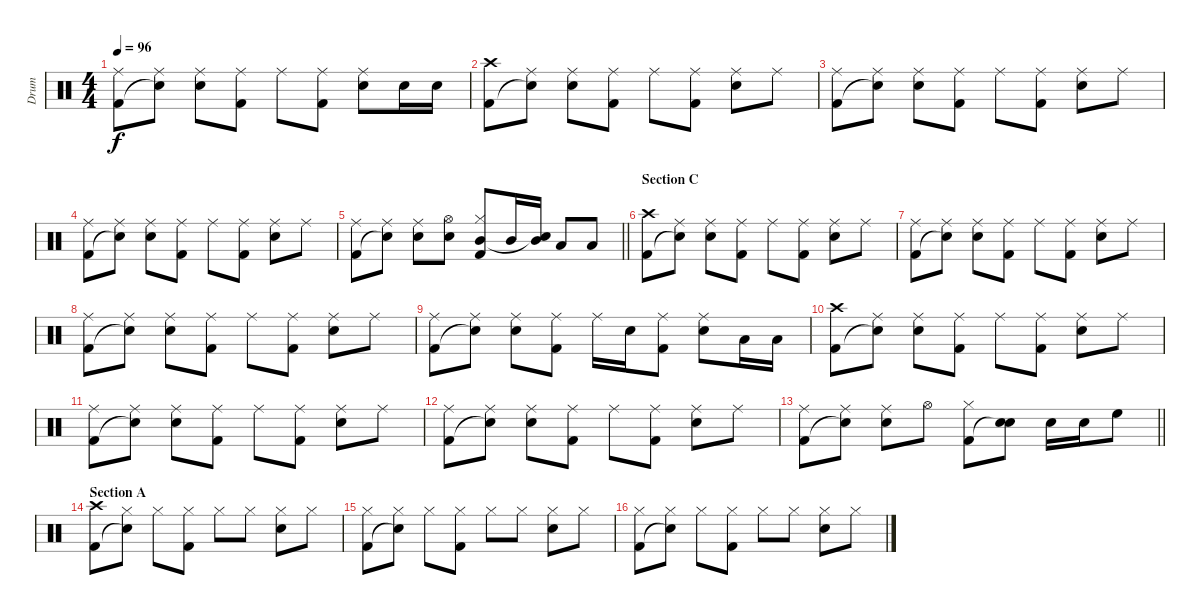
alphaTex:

\track ("Drum" "Drum") {instrument percussion}
\staff {score}
\articulation defaults
\ts (4 4)
\tempo 96
\clef neutral
\ks c
("Ride (middle)" "Kick (hit) 2").8{dy f} ("Ride (middle)" "Snare (hit)"{t}).8 ("Ride (middle)" "Snare (hit) 2").8 ("Ride (middle)" "Kick (hit) 2").8 "Ride (middle)".8 ("Ride (middle)" "Kick (hit) 2").8 ("Ride (middle)" "Snare (hit) 2").8 "Snare (hit) 2".16 "Snare (hit) 2".16 |
("Crash high (hit)" "Kick (hit) 2").8 ("Ride (middle)" "Snare (hit)"{t}).8 ("Ride (middle)" "Snare (hit) 2").8 ("Ride (middle)" "Kick (hit) 2").8 "Ride (middle)".8 ("Ride (middle)" "Kick (hit) 2").8 ("Ride (middle)" "Snare (hit) 2").8 "Ride (middle)".8 |
("Ride (middle)" "Kick (hit) 2").8 ("Ride (middle)" "Snare (hit)"{t}).8 ("Ride (middle)" "Snare (hit) 2").8 ("Ride (middle)" "Kick (hit) 2").8 "Ride (middle)".8 ("Ride (middle)" "Kick (hit) 2").8 ("Ride (middle)" "Snare (hit) 2").8 "Ride (middle)".8 |
("Ride (middle)" "Kick (hit) 2").8 ("Ride (middle)" "Snare (hit)"{t}).8 ("Ride (middle)" "Snare (hit) 2").8 ("Ride (middle)" "Kick (hit) 2").8 "Ride (middle)".8 ("Ride (middle)" "Kick (hit) 2").8 ("Ride (middle)" "Snare (hit) 2").8 "Ride (middle)".8 |
\barLineRight lightlight
("Ride (middle)" "Kick (hit) 2").8 ("Ride (middle)" "Snare (hit)"{t}).8 ("Ride (middle)" "Snare (hit) 2").8 ("Hi-Hat (open)" "Snare (hit) 2").8 ("Hi-Hat (closed)" "Mid Tom (hit)" "Kick (hit) 2").8 "Mid Tom (hit)".16 ("Mid Tom (hit)" "Snare (hit)"{t}).16 "Low Tom (hit)".8 "Low Tom (hit)".8 |
\section ("" "Section C")
("Crash high (hit)" "Kick (hit) 2").8 ("Ride (middle)" "Snare (hit)"{t}).8 ("Ride (middle)" "Snare (hit) 2").8 ("Ride (middle)" "Kick (hit) 2").8 "Ride (middle)".8 ("Ride (middle)" "Kick (hit) 2").8 ("Ride (middle)" "Snare (hit) 2").8 "Ride (middle)".8 |
("Ride (middle)" "Kick (hit) 2").8 ("Ride (middle)" "Snare (hit)"{t}).8 ("Ride (middle)" "Snare (hit) 2").8 ("Ride (middle)" "Kick (hit) 2").8 "Ride (middle)".8 ("Ride (middle)" "Kick (hit) 2").8 ("Ride (middle)" "Snare (hit) 2").8 "Ride (middle)".8 |
("Ride (middle)" "Kick (hit) 2").8 ("Ride (middle)" "Snare (hit)"{t}).8 ("Ride (middle)" "Snare (hit) 2").8 ("Ride (middle)" "Kick (hit) 2").8 "Ride (middle)".8 ("Ride (middle)" "Kick (hit) 2").8 ("Ride (middle)" "Snare (hit) 2").8 "Ride (middle)".8 |
("Ride (middle)" "Kick (hit) 2").8 ("Ride (middle)" "Snare (hit)"{t}).8 ("Ride (middle)" "Snare (hit) 2").8 ("Ride (middle)" "Kick (hit) 2").8 "Ride (middle)".16 "Snare (hit) 2".16 ("Ride (middle)" "Kick (hit) 2").8 ("Ride (middle)" "Snare (hit) 2").8 "Low Tom (hit)".16 "Low Tom (hit)".16 |
("Crash high (hit)" "Kick (hit) 2").8 ("Ride (middle)" "Snare (hit)"{t}).8 ("Ride (middle)" "Snare (hit) 2").8 ("Ride (middle)" "Kick (hit) 2").8 "Ride (middle)".8 ("Ride (middle)" "Kick (hit) 2").8 ("Ride (middle)" "Snare (hit) 2").8 "Ride (middle)".8 |
("Ride (middle)" "Kick (hit) 2").8 ("Ride (middle)" "Snare (hit)"{t}).8 ("Ride (middle)" "Snare (hit) 2").8 ("Ride (middle)" "Kick (hit) 2").8 "Ride (middle)".8 ("Ride (middle)" "Kick (hit) 2").8 ("Ride (middle)" "Snare (hit) 2").8 "Ride (middle)".8 |
("Ride (middle)" "Kick (hit) 2").8 ("Ride (middle)" "Snare (hit)"{t}).8 ("Ride (middle)" "Snare (hit) 2").8 ("Ride (middle)" "Kick (hit) 2").8 "Ride (middle)".8 ("Ride (middle)" "Kick (hit) 2").8 ("Ride (middle)" "Snare (hit) 2").8 "Ride (middle)".8 |
\barLineRight lightlight
("Ride (middle)" "Kick (hit) 2").8 ("Ride (middle)" "Snare (hit)"{t}).8 ("Ride (middle)" "Snare (hit) 2").8 "Hi-Hat (open)".8 ("Hi-Hat (closed)" "Kick (hit) 2").8 ("Snare (hit) 2" "Snare (hit)"{t}).8 "Snare (hit) 2".16 "Snare (hit) 2".16 "High Floor Tom (hit)".8 |
\section ("" "Section A")
("Crash high (hit)" "Kick (hit) 2").8 ("Hi-Hat (closed)" "Snare (hit)"{t}).8 "Hi-Hat (closed)".8 ("Hi-Hat (closed)" "Kick (hit) 2").8 "Hi-Hat (closed)".8 "Hi-Hat (closed)".8 ("Hi-Hat (closed)" "Snare (hit) 2").8 "Hi-Hat (closed)".8 |
("Hi-Hat (closed)" "Kick (hit) 2").8 ("Hi-Hat (closed)" "Snare (hit)"{t}).8 "Hi-Hat (closed)".8 ("Hi-Hat (closed)" "Kick (hit) 2").8 "Hi-Hat (closed)".8 "Hi-Hat (closed)".8 ("Hi-Hat (closed)" "Snare (hit) 2").8 "Hi-Hat (closed)".8 |
("Hi-Hat (closed)" "Kick (hit) 2").8 ("Hi-Hat (closed)" "Snare (hit)"{t}).8 "Hi-Hat (closed)".8 ("Hi-Hat (closed)" "Kick (hit) 2").8 "Hi-Hat (closed)".8 "Hi-Hat (closed)".8 ("Hi-Hat (closed)" "Snare (hit) 2").8 "Hi-Hat (closed)".8
